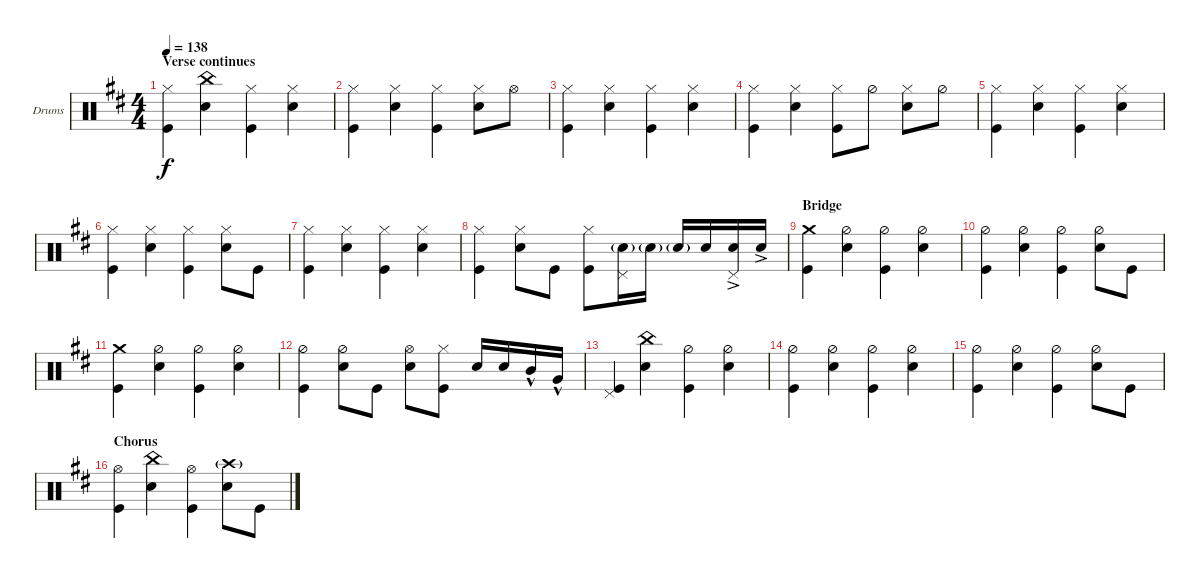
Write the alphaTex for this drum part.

\defaultSystemsLayout 4
\bracketExtendMode groupsimilarinstruments
\firstSystemTrackNameOrientation horizontal
\otherSystemsTrackNameOrientation horizontal
\track ("Drumkit" "Drums") {instrument percussion}
\staff {score}
\articulation defaults
\ts (4 4)
\section ("" "Verse continues")
\tempo 138
\clef neutral
\ks d
("Hi-Hat (closed)" "Kick (hit)").4{dy f} ("Snare (hit) 2" "China (hit)").4 ("Hi-Hat (closed)" "Kick (hit)").4 ("Hi-Hat (closed)" "Snare (hit) 2").4 |
("Hi-Hat (closed)" "Kick (hit)").4 ("Hi-Hat (closed)" "Snare (hit) 2").4 ("Hi-Hat (closed)" "Kick (hit)").4 ("Hi-Hat (closed)" "Snare (hit) 2").8 "Hi-Hat (open)".8 |
("Hi-Hat (closed)" "Kick (hit)").4 ("Hi-Hat (closed)" "Snare (hit) 2").4 ("Hi-Hat (closed)" "Kick (hit)").4 ("Hi-Hat (closed)" "Snare (hit) 2").4 |
("Hi-Hat (closed)" "Kick (hit)").4 ("Hi-Hat (closed)" "Snare (hit) 2").4 ("Hi-Hat (closed)" "Kick (hit)").8 "Hi-Hat (half)".8 ("Hi-Hat (closed)" "Snare (hit) 2").8 "Hi-Hat (half)".8 |
("Hi-Hat (closed)" "Kick (hit)").4 ("Hi-Hat (closed)" "Snare (hit) 2").4 ("Hi-Hat (closed)" "Kick (hit)").4 ("Hi-Hat (closed)" "Snare (hit) 2").4 |
("Hi-Hat (closed)" "Kick (hit)").4 ("Hi-Hat (closed)" "Snare (hit) 2").4 ("Hi-Hat (closed)" "Kick (hit)").4 ("Hi-Hat (closed)" "Snare (hit) 2").8 "Kick (hit)".8 |
("Hi-Hat (closed)" "Kick (hit)").4 ("Hi-Hat (closed)" "Snare (hit) 2").4 ("Hi-Hat (closed)" "Kick (hit)").4 ("Hi-Hat (closed)" "Snare (hit) 2").4 |
("Hi-Hat (closed)" "Kick (hit)").4 ("Hi-Hat (closed)" "Snare (hit) 2").8 "Kick (hit)".8 ("Hi-Hat (closed)" "Kick (hit)").8 ("Snare (hit) 2"{g} "Pedal Hi-Hat (hit)").16 "Snare (hit) 2"{g}.16 "Snare (hit) 2"{g}.16 "Snare (hit) 2".16 ("Snare (hit) 2"{ac} "Pedal Hi-Hat (hit)").16 "Snare (hit) 2"{ac}.16 |
\section ("" "Bridge")
("Kick (hit)" "Crash medium (hit)").4 ("Hi-Hat (half)" "Snare (hit) 2").4 ("Hi-Hat (half)" "Kick (hit)").4 ("Hi-Hat (half)" "Snare (hit) 2").4 |
("Kick (hit)" "Hi-Hat (half)").4 ("Hi-Hat (half)" "Snare (hit) 2").4 ("Hi-Hat (half)" "Kick (hit)").4 ("Hi-Hat (half)" "Snare (hit) 2").8 "Kick (hit)".8 |
("Kick (hit)" "Crash medium (hit)").4 ("Hi-Hat (half)" "Snare (hit) 2").4 ("Hi-Hat (half)" "Kick (hit)").4 ("Hi-Hat (half)" "Snare (hit) 2").4 |
("Kick (hit)" "Hi-Hat (half)").4 ("Hi-Hat (half)" "Snare (hit) 2").8 "Kick (hit)".8 ("Snare (hit) 2" "Hi-Hat (open)").8 ("Kick (hit)" "Hi-Hat (closed)").8 "Snare (hit) 2".16 "Snare (hit) 2".16 "Mid Tom (hit)"{hac}.16 "Very Low Tom (hit)"{hac}.16 |
("Kick (hit)" "Pedal Hi-Hat (hit)").4 ("Snare (hit) 2" "China (hit)").4 ("Hi-Hat (half)" "Kick (hit)").4 ("Hi-Hat (half)" "Snare (hit) 2").4 |
("Kick (hit)" "Hi-Hat (half)").4 ("Hi-Hat (half)" "Snare (hit) 2").4 ("Hi-Hat (half)" "Kick (hit)").4 ("Hi-Hat (half)" "Snare (hit) 2").4 |
("Kick (hit)" "Hi-Hat (half)").4 ("Hi-Hat (half)" "Snare (hit) 2").4 ("Hi-Hat (half)" "Kick (hit)").4 ("Hi-Hat (half)" "Snare (hit) 2").8 "Kick (hit)".8 |
\section ("" "Chorus")
("Kick (hit)" "Hi-Hat (open)").4 ("Snare (hit) 2" "China (hit)").4 ("Kick (hit)" "Hi-Hat (open)").4 ("Snare (hit) 2" "Crash high (hit)"{g}).8 "Kick (hit)".8
